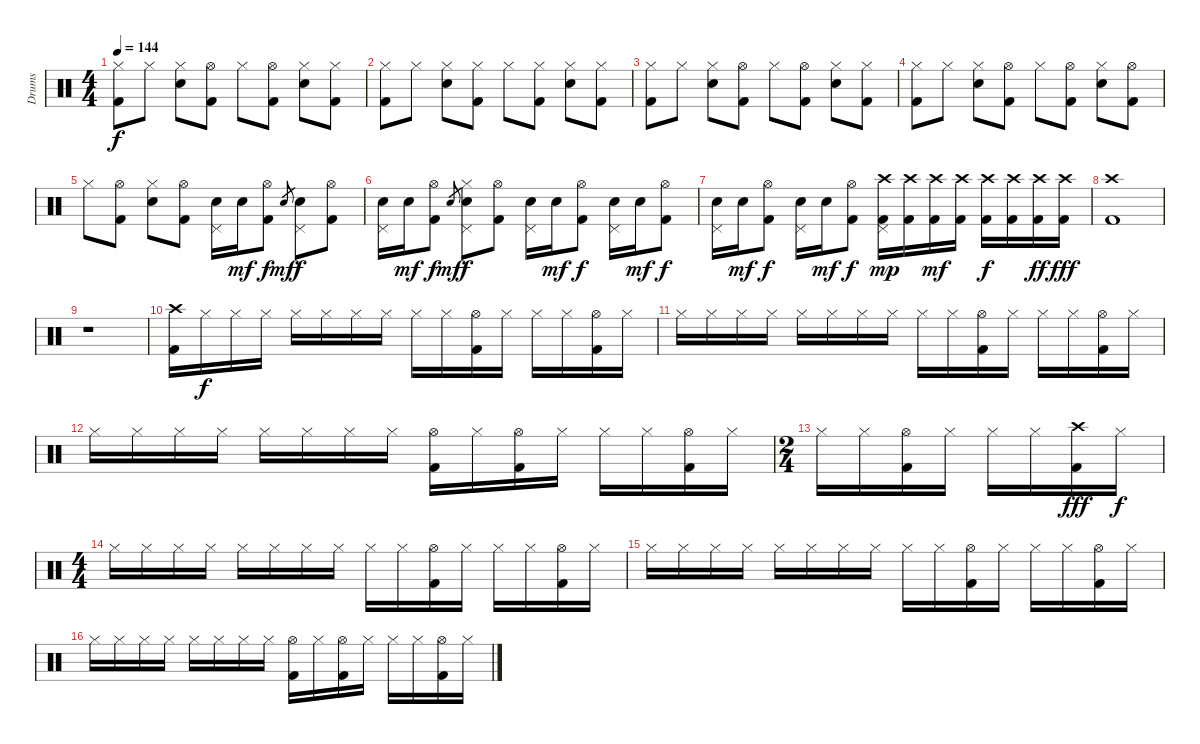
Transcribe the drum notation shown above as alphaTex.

\track ("Drums" "Drums") {instrument percussion}
\staff {score}
\articulation defaults
\ts (4 4)
\tempo 144
\clef neutral
\ks c
("Hi-Hat (closed)" "Kick (hit) 2").8{dy f} "Hi-Hat (closed)".8 ("Hi-Hat (closed)" "Snare (hit) 2").8 ("Hi-Hat (open)" "Kick (hit) 2").8 "Hi-Hat (closed)".8 ("Hi-Hat (open)" "Kick (hit) 2").8 ("Hi-Hat (closed)" "Snare (hit) 2").8 ("Hi-Hat (closed)" "Kick (hit) 2").8 |
("Hi-Hat (closed)" "Kick (hit) 2").8 "Hi-Hat (closed)".8 ("Hi-Hat (closed)" "Snare (hit) 2").8 ("Hi-Hat (closed)" "Kick (hit) 2").8 "Hi-Hat (closed)".8 ("Hi-Hat (closed)" "Kick (hit) 2").8 ("Hi-Hat (closed)" "Snare (hit) 2").8 ("Hi-Hat (closed)" "Kick (hit) 2").8 |
("Hi-Hat (closed)" "Kick (hit) 2").8 "Hi-Hat (closed)".8 ("Hi-Hat (closed)" "Snare (hit) 2").8 ("Hi-Hat (open)" "Kick (hit) 2").8 "Hi-Hat (closed)".8 ("Hi-Hat (open)" "Kick (hit) 2").8 ("Hi-Hat (closed)" "Snare (hit) 2").8 ("Hi-Hat (closed)" "Kick (hit) 2").8 |
("Hi-Hat (closed)" "Kick (hit) 2").8 "Hi-Hat (closed)".8 ("Hi-Hat (closed)" "Snare (hit) 2").8 ("Hi-Hat (open)" "Kick (hit) 2").8 "Hi-Hat (closed)".8 ("Hi-Hat (open)" "Kick (hit) 2").8 ("Hi-Hat (closed)" "Snare (hit) 2").8 ("Hi-Hat (open)" "Kick (hit) 2").8 |
"Hi-Hat (closed)".8 ("Hi-Hat (open)" "Kick (hit) 2").8 ("Hi-Hat (closed)" "Snare (hit) 2").8 ("Hi-Hat (open)" "Kick (hit) 2").8 ("Pedal Hi-Hat (hit)" "Snare (hit) 2").16 "Snare (hit) 2".16{dy mf} ("Hi-Hat (open)" "Kick (hit) 2").8{dy f} "Snare (hit)".8{gr dy mf} ("Pedal Hi-Hat (hit)" "Snare (hit) 2").8{dy f} ("Hi-Hat (open)" "Kick (hit) 2").8 |
("Pedal Hi-Hat (hit)" "Snare (hit) 2").16 "Snare (hit) 2".16{dy mf} ("Hi-Hat (open)" "Kick (hit) 2").8{dy f} "Snare (hit)".8{gr dy mf} ("Pedal Hi-Hat (hit)" "Hi-Hat (closed)" "Snare (hit) 2").8{dy f} ("Hi-Hat (open)" "Kick (hit) 2").8 ("Pedal Hi-Hat (hit)" "Snare (hit) 2").16 "Snare (hit) 2".16{dy mf} ("Hi-Hat (open)" "Kick (hit) 2").8{dy f} ("Pedal Hi-Hat (hit)" "Snare (hit) 2").16 "Snare (hit) 2".16{dy mf} ("Hi-Hat (open)" "Kick (hit) 2").8{dy f} |
("Pedal Hi-Hat (hit)" "Snare (hit) 2").16 "Snare (hit) 2".16{dy mf} ("Hi-Hat (open)" "Kick (hit) 2").8{dy f} ("Pedal Hi-Hat (hit)" "Snare (hit) 2").16 "Snare (hit) 2".16{dy mf} ("Hi-Hat (open)" "Kick (hit) 2").8{dy f} ("Crash high (hit)" "Pedal Hi-Hat (hit)" "Kick (hit) 2").16{dy mp} ("Crash high (hit)" "Kick (hit) 2").16 ("Crash high (hit)" "Kick (hit) 2").16{dy mf} ("Crash high (hit)" "Kick (hit) 2").16 ("Crash high (hit)" "Kick (hit) 2").16{dy f} ("Crash high (hit)" "Kick (hit) 2").16 ("Crash high (hit)" "Kick (hit) 2").16{dy ff} ("Crash high (hit)" "Kick (hit) 2").16{dy fff} |
("Crash high (hit)" "Kick (hit) 2").1 |
r.1 |
("Crash high (hit)" "Kick (hit) 2").16 "Hi-Hat (closed)".16{dy f} "Hi-Hat (closed)".16 "Hi-Hat (closed)".16 "Hi-Hat (closed)".16 "Hi-Hat (closed)".16 "Hi-Hat (closed)".16 "Hi-Hat (closed)".16 "Hi-Hat (closed)".16 "Hi-Hat (closed)".16 ("Hi-Hat (open)" "Kick (hit) 2").16 "Hi-Hat (closed)".16 "Hi-Hat (closed)".16 "Hi-Hat (closed)".16 ("Hi-Hat (open)" "Kick (hit) 2").16 "Hi-Hat (closed)".16 |
"Hi-Hat (closed)".16 "Hi-Hat (closed)".16 "Hi-Hat (closed)".16 "Hi-Hat (closed)".16 "Hi-Hat (closed)".16 "Hi-Hat (closed)".16 "Hi-Hat (closed)".16 "Hi-Hat (closed)".16 "Hi-Hat (closed)".16 "Hi-Hat (closed)".16 ("Hi-Hat (open)" "Kick (hit) 2").16 "Hi-Hat (closed)".16 "Hi-Hat (closed)".16 "Hi-Hat (closed)".16 ("Hi-Hat (open)" "Kick (hit) 2").16 "Hi-Hat (closed)".16 |
"Hi-Hat (closed)".16 "Hi-Hat (closed)".16 "Hi-Hat (closed)".16 "Hi-Hat (closed)".16 "Hi-Hat (closed)".16 "Hi-Hat (closed)".16 "Hi-Hat (closed)".16 "Hi-Hat (closed)".16 ("Hi-Hat (open)" "Kick (hit) 2").16 "Hi-Hat (closed)".16 ("Hi-Hat (open)" "Kick (hit) 2").16 "Hi-Hat (closed)".16 "Hi-Hat (closed)".16 "Hi-Hat (closed)".16 ("Hi-Hat (open)" "Kick (hit) 2").16 "Hi-Hat (closed)".16 |
\ts (2 4)
"Hi-Hat (closed)".16 "Hi-Hat (closed)".16 ("Hi-Hat (open)" "Kick (hit) 2").16 "Hi-Hat (closed)".16 "Hi-Hat (closed)".16 "Hi-Hat (closed)".16 ("Crash high (hit)" "Kick (hit) 2").16{dy fff} "Hi-Hat (closed)".16{dy f} |
\ts (4 4)
"Hi-Hat (closed)".16 "Hi-Hat (closed)".16 "Hi-Hat (closed)".16 "Hi-Hat (closed)".16 "Hi-Hat (closed)".16 "Hi-Hat (closed)".16 "Hi-Hat (closed)".16 "Hi-Hat (closed)".16 "Hi-Hat (closed)".16 "Hi-Hat (closed)".16 ("Hi-Hat (open)" "Kick (hit) 2").16 "Hi-Hat (closed)".16 "Hi-Hat (closed)".16 "Hi-Hat (closed)".16 ("Hi-Hat (open)" "Kick (hit) 2").16 "Hi-Hat (closed)".16 |
"Hi-Hat (closed)".16 "Hi-Hat (closed)".16 "Hi-Hat (closed)".16 "Hi-Hat (closed)".16 "Hi-Hat (closed)".16 "Hi-Hat (closed)".16 "Hi-Hat (closed)".16 "Hi-Hat (closed)".16 "Hi-Hat (closed)".16 "Hi-Hat (closed)".16 ("Hi-Hat (open)" "Kick (hit) 2").16 "Hi-Hat (closed)".16 "Hi-Hat (closed)".16 "Hi-Hat (closed)".16 ("Hi-Hat (open)" "Kick (hit) 2").16 "Hi-Hat (closed)".16 |
"Hi-Hat (closed)".16 "Hi-Hat (closed)".16 "Hi-Hat (closed)".16 "Hi-Hat (closed)".16 "Hi-Hat (closed)".16 "Hi-Hat (closed)".16 "Hi-Hat (closed)".16 "Hi-Hat (closed)".16 ("Hi-Hat (open)" "Kick (hit) 2").16 "Hi-Hat (closed)".16 ("Hi-Hat (open)" "Kick (hit) 2").16 "Hi-Hat (closed)".16 "Hi-Hat (closed)".16 "Hi-Hat (closed)".16 ("Hi-Hat (open)" "Kick (hit) 2").16 "Hi-Hat (closed)".16
